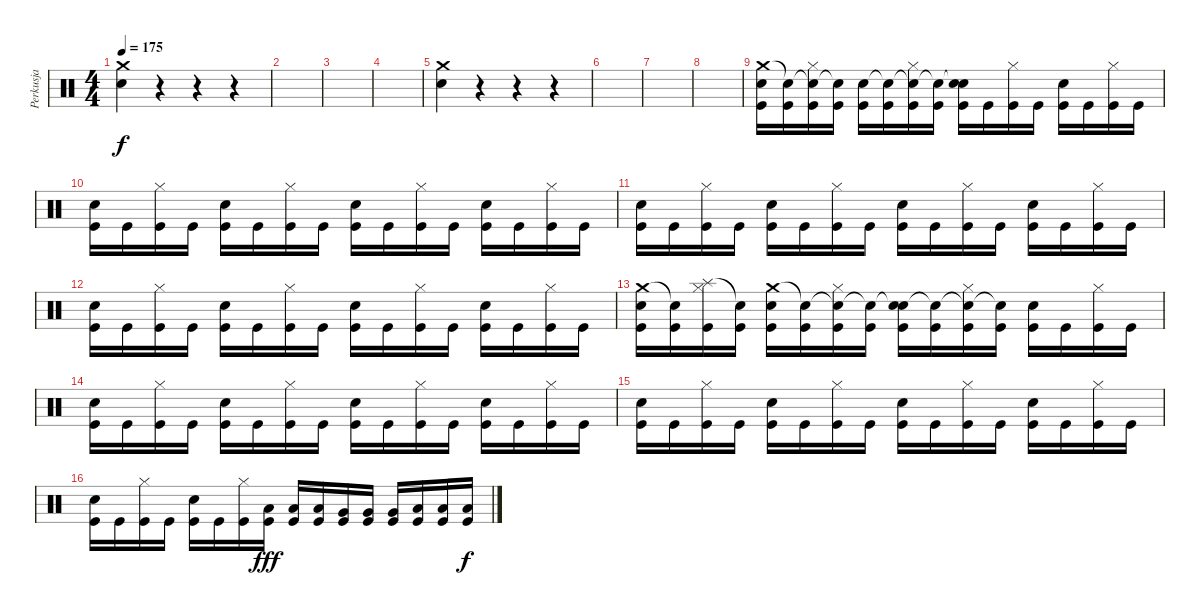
\track ("Perkusja" "Perkusja") {instrument percussion}
\staff {score}
\articulation defaults
\ts (4 4)
\tempo 175
\clef neutral
\ks c
("Crash medium (hit)" "Snare (hit) 2").4{dy f} r.4 r.4 r.4 |
|
|
|
("Crash medium (hit)" "Snare (hit) 2").4 r.4 r.4 r.4 |
|
|
|
("Crash medium (hit)" "Snare (hit) 2" "Kick (hit)").16 ("Snare (hit)"{t} "Kick (hit)").16 ("Snare (hit)"{t} "Hi-Hat (closed)" "Kick (hit)").16 ("Snare (hit)"{t} "Kick (hit)").16 ("Snare (hit) 2" "Kick (hit)").16 ("Snare (hit)"{t} "Kick (hit)").16 ("Snare (hit)"{t} "Hi-Hat (closed)" "Kick (hit)").16 ("Snare (hit)"{t} "Kick (hit)").16 ("Snare (hit)"{t} "Snare (hit) 2" "Kick (hit)").16 "Kick (hit)".16 ("Hi-Hat (closed)" "Kick (hit)").16 "Kick (hit)".16 ("Snare (hit) 2" "Kick (hit)").16 "Kick (hit)".16 ("Hi-Hat (closed)" "Kick (hit)").16 "Kick (hit)".16 |
("Snare (hit) 2" "Kick (hit)").16 "Kick (hit)".16 ("Hi-Hat (closed)" "Kick (hit)").16 "Kick (hit)".16 ("Snare (hit) 2" "Kick (hit)").16 "Kick (hit)".16 ("Hi-Hat (closed)" "Kick (hit)").16 "Kick (hit)".16 ("Snare (hit) 2" "Kick (hit)").16 "Kick (hit)".16 ("Hi-Hat (closed)" "Kick (hit)").16 "Kick (hit)".16 ("Snare (hit) 2" "Kick (hit)").16 "Kick (hit)".16 ("Hi-Hat (closed)" "Kick (hit)").16 "Kick (hit)".16 |
("Snare (hit) 2" "Kick (hit)").16 "Kick (hit)".16 ("Hi-Hat (closed)" "Kick (hit)").16 "Kick (hit)".16 ("Snare (hit) 2" "Kick (hit)").16 "Kick (hit)".16 ("Hi-Hat (closed)" "Kick (hit)").16 "Kick (hit)".16 ("Snare (hit) 2" "Kick (hit)").16 "Kick (hit)".16 ("Hi-Hat (closed)" "Kick (hit)").16 "Kick (hit)".16 ("Snare (hit) 2" "Kick (hit)").16 "Kick (hit)".16 ("Hi-Hat (closed)" "Kick (hit)").16 "Kick (hit)".16 |
("Snare (hit) 2" "Kick (hit)").16 "Kick (hit)".16 ("Hi-Hat (closed)" "Kick (hit)").16 "Kick (hit)".16 ("Snare (hit) 2" "Kick (hit)").16 "Kick (hit)".16 ("Hi-Hat (closed)" "Kick (hit)").16 "Kick (hit)".16 ("Snare (hit) 2" "Kick (hit)").16 "Kick (hit)".16 ("Hi-Hat (closed)" "Kick (hit)").16 "Kick (hit)".16 ("Snare (hit) 2" "Kick (hit)").16 "Kick (hit)".16 ("Hi-Hat (closed)" "Kick (hit)").16 "Kick (hit)".16 |
("Crash medium (hit)" "Snare (hit) 2" "Kick (hit)").16 ("Snare (hit)"{t} "Kick (hit)").16 ("Splash (hit)" "Hi-Hat (closed)" "Kick (hit)").16 ("Snare (hit)"{t} "Kick (hit)").16 ("Crash medium (hit)" "Snare (hit) 2" "Kick (hit)").16 ("Snare (hit)"{t} "Kick (hit)").16 ("Snare (hit)"{t} "Hi-Hat (closed)" "Kick (hit)").16 ("Snare (hit)"{t} "Kick (hit)").16 ("Snare (hit)"{t} "Snare (hit) 2" "Kick (hit)").16 ("Snare (hit)"{t} "Kick (hit)").16 ("Snare (hit)"{t} "Hi-Hat (closed)" "Kick (hit)").16 ("Snare (hit)"{t} "Kick (hit)").16 ("Snare (hit) 2" "Kick (hit)").16 "Kick (hit)".16 ("Hi-Hat (closed)" "Kick (hit)").16 "Kick (hit)".16 |
("Snare (hit) 2" "Kick (hit)").16 "Kick (hit)".16 ("Hi-Hat (closed)" "Kick (hit)").16 "Kick (hit)".16 ("Snare (hit) 2" "Kick (hit)").16 "Kick (hit)".16 ("Hi-Hat (closed)" "Kick (hit)").16 "Kick (hit)".16 ("Snare (hit) 2" "Kick (hit)").16 "Kick (hit)".16 ("Hi-Hat (closed)" "Kick (hit)").16 "Kick (hit)".16 ("Snare (hit) 2" "Kick (hit)").16 "Kick (hit)".16 ("Hi-Hat (closed)" "Kick (hit)").16 "Kick (hit)".16 |
("Snare (hit) 2" "Kick (hit)").16 "Kick (hit)".16 ("Hi-Hat (closed)" "Kick (hit)").16 "Kick (hit)".16 ("Snare (hit) 2" "Kick (hit)").16 "Kick (hit)".16 ("Hi-Hat (closed)" "Kick (hit)").16 "Kick (hit)".16 ("Snare (hit) 2" "Kick (hit)").16 "Kick (hit)".16 ("Hi-Hat (closed)" "Kick (hit)").16 "Kick (hit)".16 ("Snare (hit) 2" "Kick (hit)").16 "Kick (hit)".16 ("Hi-Hat (closed)" "Kick (hit)").16 "Kick (hit)".16 |
("Snare (hit) 2" "Kick (hit)").16 "Kick (hit)".16 ("Hi-Hat (closed)" "Kick (hit)").16 "Kick (hit)".16 ("Snare (hit) 2" "Kick (hit)").16 "Kick (hit)".16 ("Hi-Hat (closed)" "Kick (hit)").16 ("Low Tom (hit)" "Kick (hit)").16{dy fff} ("Low Tom (hit)" "Kick (hit)").16 ("Low Tom (hit)" "Kick (hit)").16 ("Very Low Tom (hit)" "Kick (hit)").16 ("Very Low Tom (hit)" "Kick (hit)").16 ("Very Low Tom (hit)" "Kick (hit)").16 ("Low Floor Tom (hit)" "Kick (hit)").16 ("Low Floor Tom (hit)" "Kick (hit)").16 ("Low Floor Tom (hit)" "Kick (hit)").16{dy f}
